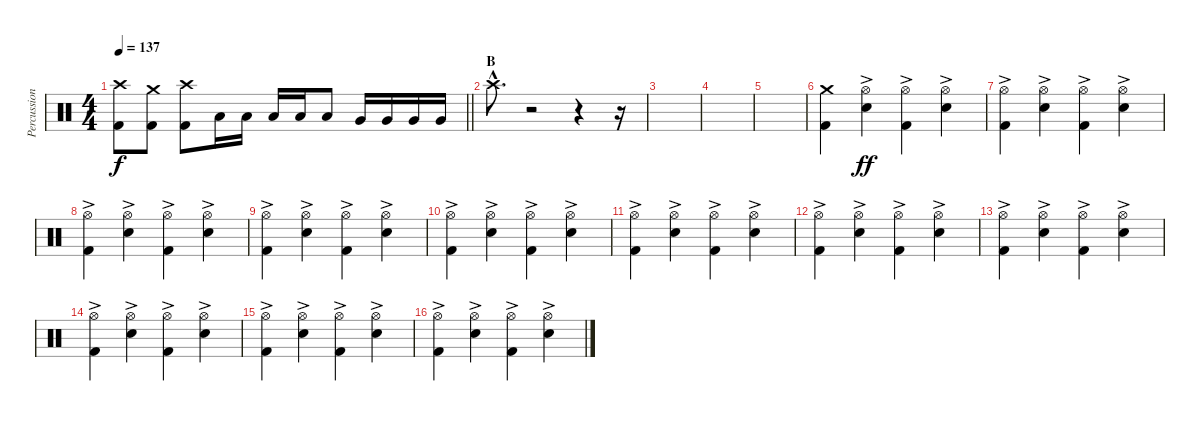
\track ("Percussion" "Percussion") {instrument percussion}
\staff {score}
\articulation defaults
\ts (4 4)
\tempo 137
\clef neutral
\barLineRight lightlight
\ks c
("Crash high (hit)" "Kick (hit) 2").8{dy f} ("Crash medium (hit)" "Kick (hit) 2").8 ("Crash high (hit)" "Kick (hit) 2").8 "Low Tom (hit)".16 "Low Tom (hit)".16 "Low Tom (hit)".16 "Low Tom (hit)".16 "Low Tom (hit)".8 "Very Low Tom (hit)".16 "Very Low Tom (hit)".16 "Very Low Tom (hit)".16 "Very Low Tom (hit)".16 |
\section ("" "B")
"Crash high (hit)"{hac}.8{d} r.2{volume 0} r.4 r.16 |
|
|
|
("Crash medium (hit)" "Kick (hit) 2").4{volume 13} ("Hi-Hat (open)"{ac} "Snare (hit) 2").4{dy ff} ("Hi-Hat (open)"{ac} "Kick (hit) 2").4 ("Hi-Hat (open)"{ac} "Snare (hit) 2").4 |
("Hi-Hat (open)"{ac} "Kick (hit) 2").4 ("Hi-Hat (open)"{ac} "Snare (hit) 2").4 ("Hi-Hat (open)"{ac} "Kick (hit) 2").4 ("Hi-Hat (open)"{ac} "Snare (hit) 2").4 |
("Hi-Hat (open)"{ac} "Kick (hit) 2").4 ("Hi-Hat (open)"{ac} "Snare (hit) 2").4 ("Hi-Hat (open)"{ac} "Kick (hit) 2").4 ("Hi-Hat (open)"{ac} "Snare (hit) 2").4 |
("Hi-Hat (open)"{ac} "Kick (hit) 2").4 ("Hi-Hat (open)"{ac} "Snare (hit) 2").4 ("Hi-Hat (open)"{ac} "Kick (hit) 2").4 ("Hi-Hat (open)"{ac} "Snare (hit) 2").4 |
("Hi-Hat (open)"{ac} "Kick (hit) 2").4 ("Hi-Hat (open)"{ac} "Snare (hit) 2").4 ("Hi-Hat (open)"{ac} "Kick (hit) 2").4 ("Hi-Hat (open)"{ac} "Snare (hit) 2").4 |
("Hi-Hat (open)"{ac} "Kick (hit) 2").4 ("Hi-Hat (open)"{ac} "Snare (hit) 2").4 ("Hi-Hat (open)"{ac} "Kick (hit) 2").4 ("Hi-Hat (open)"{ac} "Snare (hit) 2").4 |
("Hi-Hat (open)"{ac} "Kick (hit) 2").4 ("Hi-Hat (open)"{ac} "Snare (hit) 2").4 ("Hi-Hat (open)"{ac} "Kick (hit) 2").4 ("Hi-Hat (open)"{ac} "Snare (hit) 2").4 |
("Hi-Hat (open)"{ac} "Kick (hit) 2").4 ("Hi-Hat (open)"{ac} "Snare (hit) 2").4 ("Hi-Hat (open)"{ac} "Kick (hit) 2").4 ("Hi-Hat (open)"{ac} "Snare (hit) 2").4 |
("Hi-Hat (open)"{ac} "Kick (hit) 2").4 ("Hi-Hat (open)"{ac} "Snare (hit) 2").4 ("Hi-Hat (open)"{ac} "Kick (hit) 2").4 ("Hi-Hat (open)"{ac} "Snare (hit) 2").4 |
("Hi-Hat (open)"{ac} "Kick (hit) 2").4 ("Hi-Hat (open)"{ac} "Snare (hit) 2").4 ("Hi-Hat (open)"{ac} "Kick (hit) 2").4 ("Hi-Hat (open)"{ac} "Snare (hit) 2").4 |
("Hi-Hat (open)"{ac} "Kick (hit) 2").4 ("Hi-Hat (open)"{ac} "Snare (hit) 2").4 ("Hi-Hat (open)"{ac} "Kick (hit) 2").4 ("Hi-Hat (open)"{ac} "Snare (hit) 2").4
